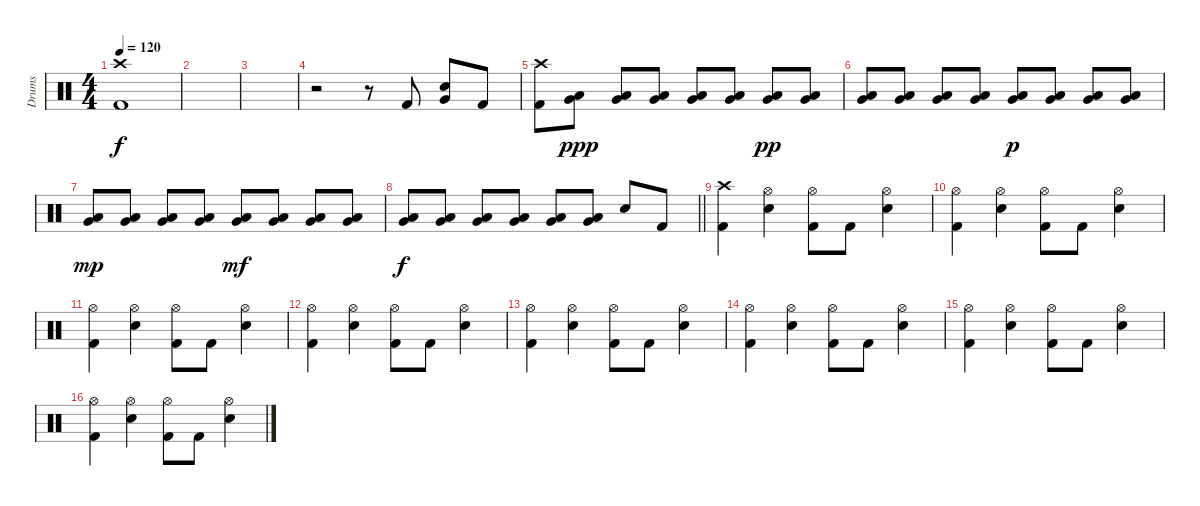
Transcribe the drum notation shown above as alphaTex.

\track ("Drums" "Drums") {instrument percussion}
\staff {score}
\articulation defaults
\ts (4 4)
\tempo 120
\clef neutral
\ks c
("Crash high (hit)" "Kick (hit) 2").1{dy f} |
|
|
r.2 r.8 "Kick (hit) 2".8 ("Very Low Tom (hit)" "Electric Snare (hit)").8 "Kick (hit) 2".8 |
("Crash high (hit)" "Kick (hit) 2").8 ("Low Tom (hit)" "Very Low Tom (hit)").8{dy ppp} ("Low Tom (hit)" "Very Low Tom (hit)").8 ("Low Tom (hit)" "Very Low Tom (hit)").8 ("Low Tom (hit)" "Very Low Tom (hit)").8 ("Low Tom (hit)" "Very Low Tom (hit)").8 ("Low Tom (hit)" "Very Low Tom (hit)").8{dy pp} ("Low Tom (hit)" "Very Low Tom (hit)").8 |
("Low Tom (hit)" "Very Low Tom (hit)").8 ("Low Tom (hit)" "Very Low Tom (hit)").8 ("Low Tom (hit)" "Very Low Tom (hit)").8 ("Low Tom (hit)" "Very Low Tom (hit)").8 ("Low Tom (hit)" "Very Low Tom (hit)").8{dy p} ("Low Tom (hit)" "Very Low Tom (hit)").8 ("Low Tom (hit)" "Very Low Tom (hit)").8 ("Low Tom (hit)" "Very Low Tom (hit)").8 |
("Low Tom (hit)" "Very Low Tom (hit)").8{dy mp} ("Low Tom (hit)" "Very Low Tom (hit)").8 ("Low Tom (hit)" "Very Low Tom (hit)").8 ("Low Tom (hit)" "Very Low Tom (hit)").8 ("Low Tom (hit)" "Very Low Tom (hit)").8{dy mf} ("Low Tom (hit)" "Very Low Tom (hit)").8 ("Low Tom (hit)" "Very Low Tom (hit)").8 ("Low Tom (hit)" "Very Low Tom (hit)").8 |
\barLineRight lightlight
("Low Tom (hit)" "Very Low Tom (hit)").8{dy f} ("Low Tom (hit)" "Very Low Tom (hit)").8 ("Low Tom (hit)" "Very Low Tom (hit)").8 ("Low Tom (hit)" "Very Low Tom (hit)").8 ("Low Tom (hit)" "Very Low Tom (hit)").8 ("Low Tom (hit)" "Very Low Tom (hit)").8 "Electric Snare (hit)".8 "Kick (hit) 2".8 |
("Crash high (hit)" "Kick (hit) 2").4 ("Hi-Hat (open)" "Electric Snare (hit)").4 ("Hi-Hat (open)" "Kick (hit) 2").8 "Kick (hit) 2".8 ("Hi-Hat (open)" "Electric Snare (hit)").4 |
("Hi-Hat (open)" "Kick (hit) 2").4 ("Hi-Hat (open)" "Electric Snare (hit)").4 ("Hi-Hat (open)" "Kick (hit) 2").8 "Kick (hit) 2".8 ("Hi-Hat (open)" "Electric Snare (hit)").4 |
("Hi-Hat (open)" "Kick (hit) 2").4 ("Hi-Hat (open)" "Electric Snare (hit)").4 ("Hi-Hat (open)" "Kick (hit) 2").8 "Kick (hit) 2".8 ("Hi-Hat (open)" "Electric Snare (hit)").4 |
("Hi-Hat (open)" "Kick (hit) 2").4 ("Hi-Hat (open)" "Electric Snare (hit)").4 ("Hi-Hat (open)" "Kick (hit) 2").8 "Kick (hit) 2".8 ("Hi-Hat (open)" "Electric Snare (hit)").4 |
("Hi-Hat (open)" "Kick (hit) 2").4 ("Hi-Hat (open)" "Electric Snare (hit)").4 ("Hi-Hat (open)" "Kick (hit) 2").8 "Kick (hit) 2".8 ("Hi-Hat (open)" "Electric Snare (hit)").4 |
("Hi-Hat (open)" "Kick (hit) 2").4 ("Hi-Hat (open)" "Electric Snare (hit)").4 ("Hi-Hat (open)" "Kick (hit) 2").8 "Kick (hit) 2".8 ("Hi-Hat (open)" "Electric Snare (hit)").4 |
("Hi-Hat (open)" "Kick (hit) 2").4 ("Hi-Hat (open)" "Electric Snare (hit)").4 ("Hi-Hat (open)" "Kick (hit) 2").8 "Kick (hit) 2".8 ("Hi-Hat (open)" "Electric Snare (hit)").4 |
("Hi-Hat (open)" "Kick (hit) 2").4 ("Hi-Hat (open)" "Electric Snare (hit)").4 ("Hi-Hat (open)" "Kick (hit) 2").8 "Kick (hit) 2".8 ("Hi-Hat (open)" "Electric Snare (hit)").4
